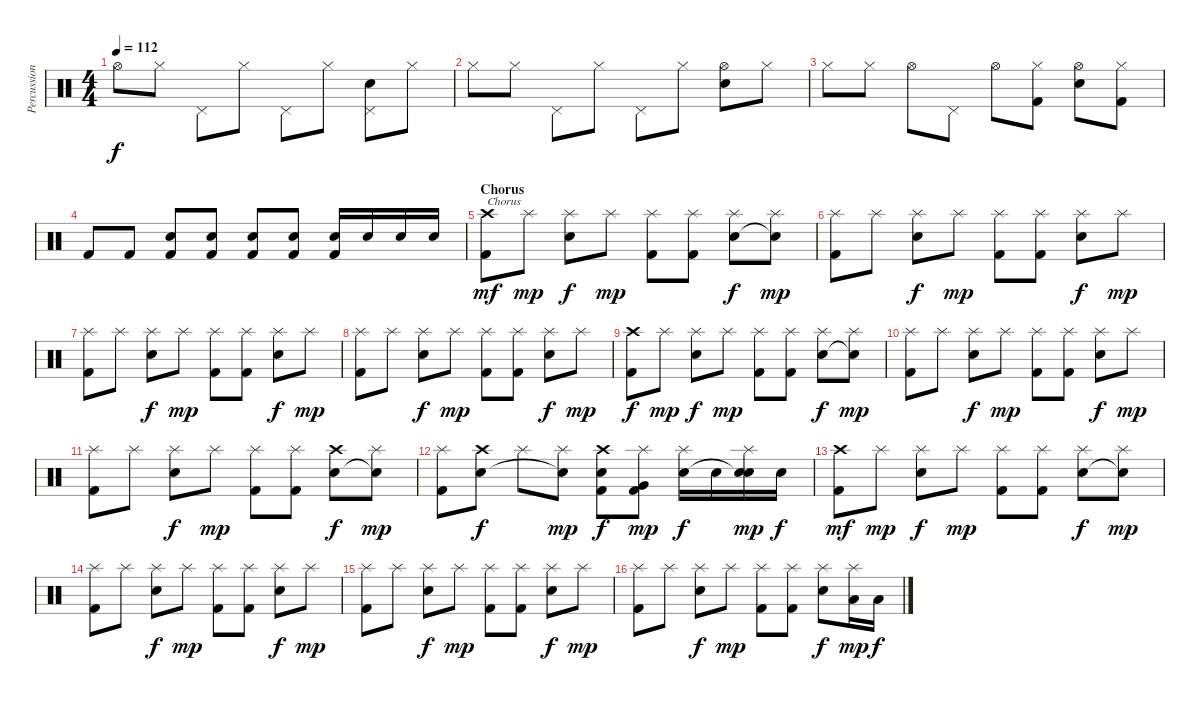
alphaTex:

\track ("Percussion" "Percussion") {instrument percussion}
\staff {score}
\articulation defaults
\ts (4 4)
\tempo 112
\clef neutral
\ks c "Hi-Hat (open)".8{dy f} "Hi-Hat (closed)".8 "Pedal Hi-Hat (hit)".8 "Hi-Hat (closed)".8 "Pedal Hi-Hat (hit)".8 "Hi-Hat (closed)".8
("Pedal Hi-Hat (hit)" "Electric Snare (hit)").8 "Hi-Hat (closed)".8 |
"Hi-Hat (closed)".8 "Hi-Hat (closed)".8 "Pedal Hi-Hat (hit)".8 "Hi-Hat (closed)".8 "Pedal Hi-Hat (hit)".8 "Hi-Hat (closed)".8 ("Hi-Hat (open)" "Electric Snare (hit)").8 "Hi-Hat (closed)".8 |
"Hi-Hat (closed)".8 "Hi-Hat (closed)".8 "Hi-Hat (open)".8 "Pedal Hi-Hat (hit)".8 "Hi-Hat (open)".8 ("Hi-Hat (closed)" "Kick (hit) 2").8 ("Hi-Hat (open)" "Electric Snare (hit)").8 ("Hi-Hat (closed)" "Kick (hit) 2").8 |
"Kick (hit) 2".8{volume 16} "Kick (hit) 2".8 ("Electric Snare (hit)" "Kick (hit) 2").8 ("Electric Snare (hit)" "Kick (hit) 2").8 ("Electric Snare (hit)" "Kick (hit) 2").8 ("Electric Snare (hit)" "Kick (hit) 2").8 ("Electric Snare (hit)" "Kick (hit) 2").16 "Electric Snare (hit)".16 "Electric Snare (hit)".16 "Electric Snare (hit)".16 |
\section ("" "Chorus")
("Crash high (hit)" "Kick (hit) 2").8{txt "Chorus" dy mf volume 16} "Splash (hit)".8{dy mp} ("Splash (hit)" "Electric Snare (hit)").8{dy f} "Splash (hit)".8{dy mp} ("Splash (hit)" "Kick (hit) 2").8 ("Splash (hit)" "Kick (hit) 2").8 ("Splash (hit)" "Electric Snare (hit)").8{dy f} ("Splash (hit)" "Snare (hit)"{t}).8{dy mp} |
("Splash (hit)" "Kick (hit) 2").8 "Splash (hit)".8 ("Splash (hit)" "Electric Snare (hit)").8{dy f} "Splash (hit)".8{dy mp} ("Splash (hit)" "Kick (hit) 2").8 ("Splash (hit)" "Kick (hit) 2").8 ("Splash (hit)" "Electric Snare (hit)").8{dy f} "Splash (hit)".8{dy mp} |
("Splash (hit)" "Kick (hit) 2").8 "Splash (hit)".8 ("Splash (hit)" "Electric Snare (hit)").8{dy f} "Splash (hit)".8{dy mp} ("Splash (hit)" "Kick (hit) 2").8 ("Splash (hit)" "Kick (hit) 2").8 ("Splash (hit)" "Electric Snare (hit)").8{dy f} "Splash (hit)".8{dy mp} |
("Splash (hit)" "Kick (hit) 2").8 "Splash (hit)".8 ("Splash (hit)" "Electric Snare (hit)").8{dy f} "Splash (hit)".8{dy mp} ("Splash (hit)" "Kick (hit) 2").8 ("Splash (hit)" "Kick (hit) 2").8 ("Splash (hit)" "Electric Snare (hit)").8{dy f} "Splash (hit)".8{dy mp} |
("Crash high (hit)" "Kick (hit) 2").8{dy f} "Splash (hit)".8{dy mp} ("Splash (hit)" "Electric Snare (hit)").8{dy f} "Splash (hit)".8{dy mp} ("Splash (hit)" "Kick (hit) 2").8 ("Splash (hit)" "Kick (hit) 2").8 ("Splash (hit)" "Electric Snare (hit)").8{dy f} ("Splash (hit)" "Snare (hit)"{t}).8{dy mp} |
("Splash (hit)" "Kick (hit) 2").8 "Splash (hit)".8 ("Splash (hit)" "Electric Snare (hit)").8{dy f} "Splash (hit)".8{dy mp} ("Splash (hit)" "Kick (hit) 2").8 ("Splash (hit)" "Kick (hit) 2").8 ("Splash (hit)" "Electric Snare (hit)").8{dy f} "Splash (hit)".8{dy mp} |
("Splash (hit)" "Kick (hit) 2").8{volume 16} "Splash (hit)".8 ("Splash (hit)" "Electric Snare (hit)").8{dy f} "Splash (hit)".8{dy mp} ("Splash (hit)" "Kick (hit) 2").8 ("Splash (hit)" "Kick (hit) 2").8 ("Crash high (hit)" "Electric Snare (hit)").8{dy f} ("Splash (hit)" "Snare (hit)"{t}).8{dy mp} |
("Splash (hit)" "Kick (hit) 2").8 ("Crash high (hit)" "Electric Snare (hit)").8{dy f} "Splash (hit)".8 ("Splash (hit)" "Snare (hit)"{t}).8{dy mp} ("Crash high (hit)" "Electric Snare (hit)" "Kick (hit) 2").8{dy f} ("Splash (hit)" "Very Low Tom (hit)" "Kick (hit) 2").8{dy mp} ("Splash (hit)" "Electric Snare (hit)").16{dy f} "Electric Snare (hit)".16 ("Splash (hit)" "Snare (hit)"{t} "Electric Snare (hit)").16{dy mp} "Electric Snare (hit)".16{dy f} |
("Crash high (hit)" "Kick (hit) 2").8{dy mf volume 16} "Splash (hit)".8{dy mp} ("Splash (hit)" "Electric Snare (hit)").8{dy f} "Splash (hit)".8{dy mp} ("Splash (hit)" "Kick (hit) 2").8 ("Splash (hit)" "Kick (hit) 2").8 ("Splash (hit)" "Electric Snare (hit)").8{dy f} ("Splash (hit)" "Snare (hit)"{t}).8{dy mp} |
("Splash (hit)" "Kick (hit) 2").8{volume 16} "Splash (hit)".8 ("Splash (hit)" "Electric Snare (hit)").8{dy f} "Splash (hit)".8{dy mp} ("Splash (hit)" "Kick (hit) 2").8 ("Splash (hit)" "Kick (hit) 2").8 ("Splash (hit)" "Electric Snare (hit)").8{dy f} "Splash (hit)".8{dy mp} |
("Splash (hit)" "Kick (hit) 2").8 "Splash (hit)".8 ("Splash (hit)" "Electric Snare (hit)").8{dy f} "Splash (hit)".8{dy mp} ("Splash (hit)" "Kick (hit) 2").8 ("Splash (hit)" "Kick (hit) 2").8 ("Splash (hit)" "Electric Snare (hit)").8{dy f} "Splash (hit)".8{dy mp} |
("Splash (hit)" "Kick (hit) 2").8 "Splash (hit)".8 ("Splash (hit)" "Electric Snare (hit)").8{dy f} "Splash (hit)".8{dy mp} ("Splash (hit)" "Kick (hit) 2").8 ("Splash (hit)" "Kick (hit) 2").8 ("Splash (hit)" "Electric Snare (hit)").8{dy f} ("Splash (hit)" "Low Floor Tom (hit)").16{dy mp} "Low Floor Tom (hit)".16{dy f}
